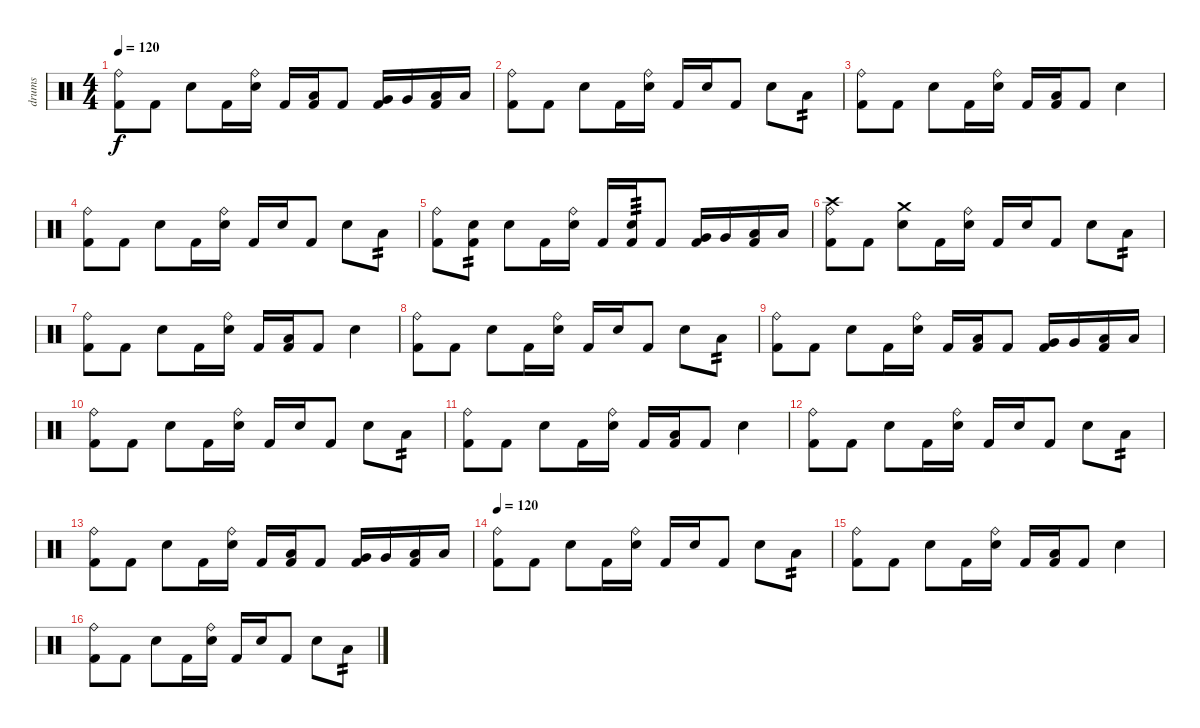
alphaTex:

\track ("drums" "drums") {instrument percussion}
\staff {score}
\articulation defaults
\ts (4 4)
\tempo 120
\clef neutral
\ks c
("Ride (bell)" "Kick (hit) 2").8{dy f} "Kick (hit) 2".8 "Electric Snare (hit)".8 "Kick (hit) 2".16 ("Ride (bell)" "Electric Snare (hit)").16 "Kick (hit) 2".16 ("Low Tom (hit)" "Kick (hit) 2").16 "Kick (hit) 2".8 ("Very Low Tom (hit)" "Kick (hit) 2").16 "Very Low Tom (hit)".16 ("Low Floor Tom (hit)" "Kick (hit) 2").16 "Low Floor Tom (hit)".16 |
("Ride (bell)" "Kick (hit) 2").8 "Kick (hit) 2".8 "Electric Snare (hit)".8 "Kick (hit) 2".16 ("Ride (bell)" "Electric Snare (hit)").16 "Kick (hit) 2".16 "Electric Snare (hit)".16 "Kick (hit) 2".8 "Electric Snare (hit)".8 "Low Tom (hit)".8{tp 2} |
("Ride (bell)" "Kick (hit) 2").8 "Kick (hit) 2".8 "Electric Snare (hit)".8 "Kick (hit) 2".16 ("Ride (bell)" "Electric Snare (hit)").16 "Kick (hit) 2".16 ("Low Tom (hit)" "Kick (hit) 2").16 "Kick (hit) 2".8 "Electric Snare (hit)".4 |
("Ride (bell)" "Kick (hit) 2").8 "Kick (hit) 2".8 "Electric Snare (hit)".8 "Kick (hit) 2".16 ("Ride (bell)" "Electric Snare (hit)").16 "Kick (hit) 2".16 "Electric Snare (hit)".16 "Kick (hit) 2".8 "Electric Snare (hit)".8 "Low Tom (hit)".8{tp 2} |
("Ride (bell)" "Kick (hit) 2").8 ("Electric Snare (hit)" "Kick (hit) 2").8{tp 2} "Electric Snare (hit)".8 "Kick (hit) 2".16 ("Ride (bell)" "Electric Snare (hit)").16 "Kick (hit) 2".16 ("Electric Snare (hit)" "Kick (hit) 2").16{tp 3} "Kick (hit) 2".8 ("Very Low Tom (hit)" "Kick (hit) 2").16 "Very Low Tom (hit)".16 ("Low Floor Tom (hit)" "Kick (hit) 2").16 "Low Floor Tom (hit)".16 |
("Ride (bell)" "Crash high (hit)" "Kick (hit) 2").8 "Kick (hit) 2".8 ("Crash medium (hit)" "Electric Snare (hit)").8 "Kick (hit) 2".16 ("Ride (bell)" "Electric Snare (hit)").16 "Kick (hit) 2".16 "Electric Snare (hit)".16 "Kick (hit) 2".8 "Electric Snare (hit)".8 "Low Tom (hit)".8{tp 2} |
("Ride (bell)" "Kick (hit) 2").8 "Kick (hit) 2".8 "Electric Snare (hit)".8 "Kick (hit) 2".16 ("Ride (bell)" "Electric Snare (hit)").16 "Kick (hit) 2".16 ("Low Tom (hit)" "Kick (hit) 2").16 "Kick (hit) 2".8 "Electric Snare (hit)".4 |
("Ride (bell)" "Kick (hit) 2").8 "Kick (hit) 2".8 "Electric Snare (hit)".8 "Kick (hit) 2".16 ("Ride (bell)" "Electric Snare (hit)").16 "Kick (hit) 2".16 "Electric Snare (hit)".16 "Kick (hit) 2".8 "Electric Snare (hit)".8 "Low Tom (hit)".8{tp 2} |
("Ride (bell)" "Kick (hit) 2").8 "Kick (hit) 2".8 "Electric Snare (hit)".8 "Kick (hit) 2".16 ("Ride (bell)" "Electric Snare (hit)").16 "Kick (hit) 2".16 ("Low Tom (hit)" "Kick (hit) 2").16 "Kick (hit) 2".8 ("Very Low Tom (hit)" "Kick (hit) 2").16 "Very Low Tom (hit)".16 ("Low Floor Tom (hit)" "Kick (hit) 2").16 "Low Floor Tom (hit)".16 |
("Ride (bell)" "Kick (hit) 2").8 "Kick (hit) 2".8 "Electric Snare (hit)".8 "Kick (hit) 2".16 ("Ride (bell)" "Electric Snare (hit)").16 "Kick (hit) 2".16 "Electric Snare (hit)".16 "Kick (hit) 2".8 "Electric Snare (hit)".8 "Low Tom (hit)".8{tp 2} |
("Ride (bell)" "Kick (hit) 2").8 "Kick (hit) 2".8 "Electric Snare (hit)".8 "Kick (hit) 2".16 ("Ride (bell)" "Electric Snare (hit)").16 "Kick (hit) 2".16 ("Low Tom (hit)" "Kick (hit) 2").16 "Kick (hit) 2".8 "Electric Snare (hit)".4 |
("Ride (bell)" "Kick (hit) 2").8 "Kick (hit) 2".8 "Electric Snare (hit)".8 "Kick (hit) 2".16 ("Ride (bell)" "Electric Snare (hit)").16 "Kick (hit) 2".16 "Electric Snare (hit)".16 "Kick (hit) 2".8 "Electric Snare (hit)".8 "Low Tom (hit)".8{tp 2} |
("Ride (bell)" "Kick (hit) 2").8 "Kick (hit) 2".8 "Electric Snare (hit)".8 "Kick (hit) 2".16 ("Ride (bell)" "Electric Snare (hit)").16 "Kick (hit) 2".16 ("Low Tom (hit)" "Kick (hit) 2").16 "Kick (hit) 2".8 ("Very Low Tom (hit)" "Kick (hit) 2").16 "Very Low Tom (hit)".16 ("Low Floor Tom (hit)" "Kick (hit) 2").16 "Low Floor Tom (hit)".16 |
\tempo 120
("Ride (bell)" "Kick (hit) 2").8 "Kick (hit) 2".8 "Electric Snare (hit)".8 "Kick (hit) 2".16 ("Ride (bell)" "Electric Snare (hit)").16 "Kick (hit) 2".16 "Electric Snare (hit)".16 "Kick (hit) 2".8 "Electric Snare (hit)".8 "Low Tom (hit)".8{tp 2} |
("Ride (bell)" "Kick (hit) 2").8 "Kick (hit) 2".8 "Electric Snare (hit)".8 "Kick (hit) 2".16 ("Ride (bell)" "Electric Snare (hit)").16 "Kick (hit) 2".16 ("Low Tom (hit)" "Kick (hit) 2").16 "Kick (hit) 2".8 "Electric Snare (hit)".4 |
("Ride (bell)" "Kick (hit) 2").8 "Kick (hit) 2".8 "Electric Snare (hit)".8 "Kick (hit) 2".16 ("Ride (bell)" "Electric Snare (hit)").16 "Kick (hit) 2".16 "Electric Snare (hit)".16 "Kick (hit) 2".8 "Electric Snare (hit)".8 "Low Tom (hit)".8{tp 2}
